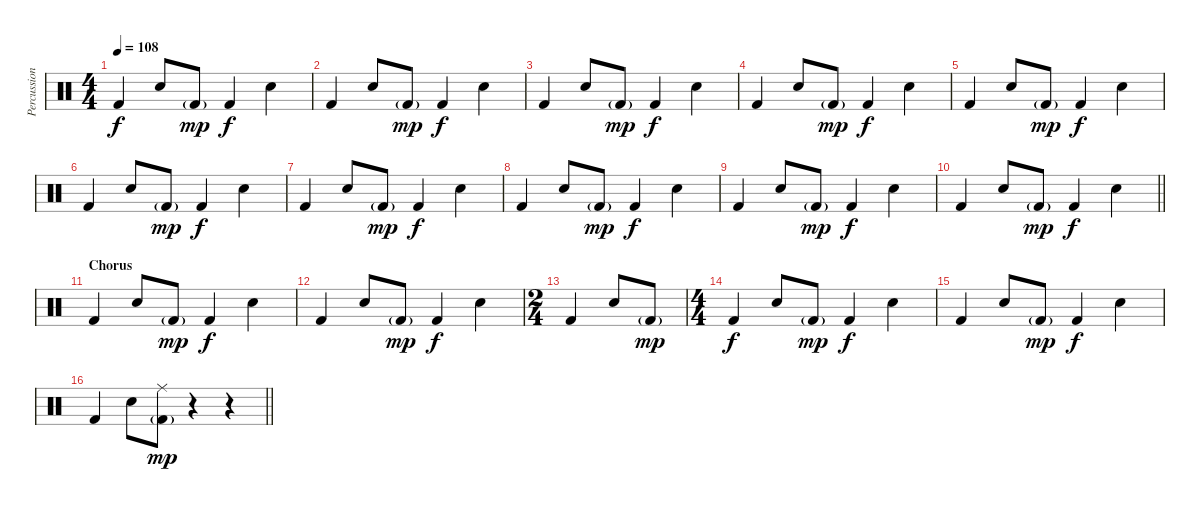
\track ("Percussion" "Percussion") {instrument percussion}
\staff {score}
\articulation defaults
\ts (4 4)
\tempo 108
\clef neutral
\ks c "Kick (hit) 2".4{dy f} "Snare (hit) 2".8 "Kick (hit) 2"{g}.8{dy mp} "Kick (hit) 2".4{dy f} "Snare (hit) 2".4
|
"Kick (hit) 2".4 "Snare (hit) 2".8 "Kick (hit) 2"{g}.8{dy mp} "Kick (hit) 2".4{dy f} "Snare (hit) 2".4 |
"Kick (hit) 2".4 "Snare (hit) 2".8 "Kick (hit) 2"{g}.8{dy mp} "Kick (hit) 2".4{dy f} "Snare (hit) 2".4 |
"Kick (hit) 2".4 "Snare (hit) 2".8 "Kick (hit) 2"{g}.8{dy mp} "Kick (hit) 2".4{dy f} "Snare (hit) 2".4 |
"Kick (hit) 2".4 "Snare (hit) 2".8 "Kick (hit) 2"{g}.8{dy mp} "Kick (hit) 2".4{dy f} "Snare (hit) 2".4 |
"Kick (hit) 2".4 "Snare (hit) 2".8 "Kick (hit) 2"{g}.8{dy mp} "Kick (hit) 2".4{dy f} "Snare (hit) 2".4 |
"Kick (hit) 2".4 "Snare (hit) 2".8 "Kick (hit) 2"{g}.8{dy mp} "Kick (hit) 2".4{dy f} "Snare (hit) 2".4 |
"Kick (hit) 2".4 "Snare (hit) 2".8 "Kick (hit) 2"{g}.8{dy mp} "Kick (hit) 2".4{dy f} "Snare (hit) 2".4 |
"Kick (hit) 2".4 "Snare (hit) 2".8 "Kick (hit) 2"{g}.8{dy mp} "Kick (hit) 2".4{dy f} "Snare (hit) 2".4 |
\barLineRight lightlight "Kick (hit) 2".4 "Snare (hit) 2".8 "Kick (hit) 2"{g}.8{dy mp} "Kick (hit) 2".4{dy f} "Snare (hit) 2".4
|
\section ("" "Chorus")
"Kick (hit) 2".4 "Snare (hit) 2".8 "Kick (hit) 2"{g}.8{dy mp} "Kick (hit) 2".4{dy f} "Snare (hit) 2".4 |
"Kick (hit) 2".4 "Snare (hit) 2".8 "Kick (hit) 2"{g}.8{dy mp} "Kick (hit) 2".4{dy f} "Snare (hit) 2".4 |
\ts (2 4)
"Kick (hit) 2".4 "Snare (hit) 2".8 "Kick (hit) 2"{g}.8{dy mp} |
\ts (4 4)
"Kick (hit) 2".4{dy f} "Snare (hit) 2".8 "Kick (hit) 2"{g}.8{dy mp} "Kick (hit) 2".4{dy f} "Snare (hit) 2".4 |
"Kick (hit) 2".4 "Snare (hit) 2".8 "Kick (hit) 2"{g}.8{dy mp} "Kick (hit) 2".4{dy f} "Snare (hit) 2".4 |
\barLineRight lightlight "Kick (hit) 2".4 "Snare (hit) 2".8
("Ride (middle)" "Kick (hit) 2"{g}).8{dy mp} r.4 r.4
